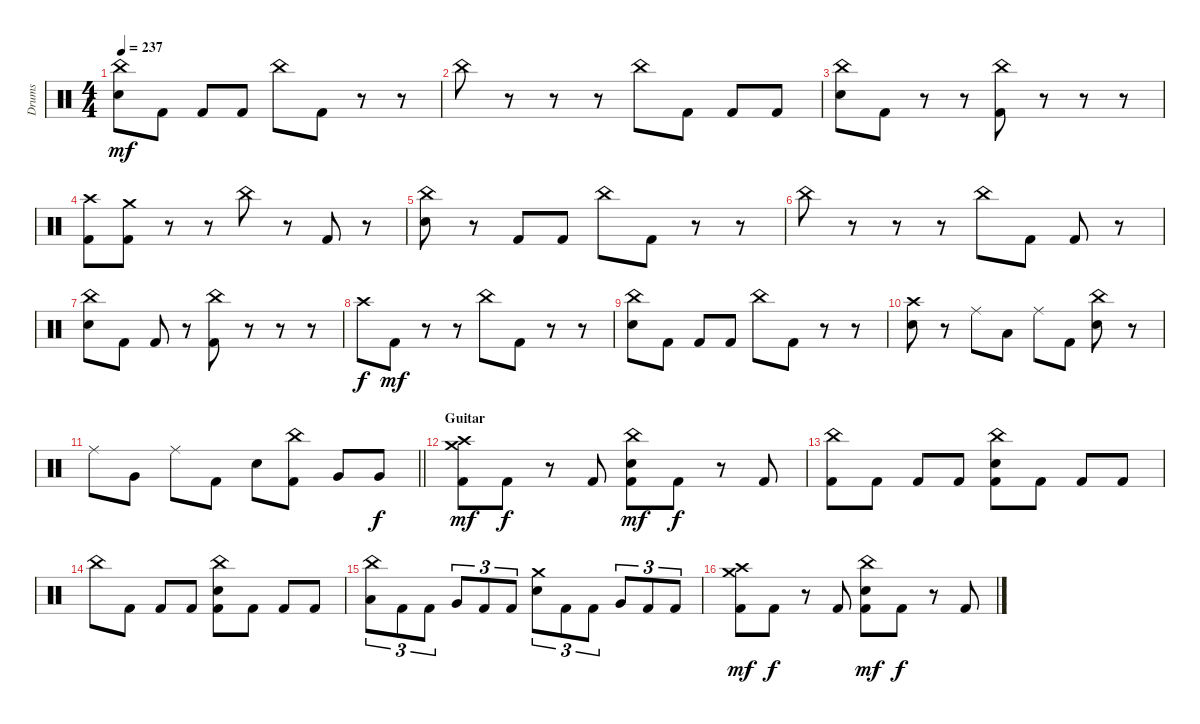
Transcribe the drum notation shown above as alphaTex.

\track ("Drums" "Drums") {instrument percussion}
\staff {score}
\articulation defaults
\ts (4 4)
\tempo 237
\clef neutral
\ks c
("China (hit)" "Electric Snare (hit)").8{dy mf} "Kick (hit) 2".8 "Kick (hit) 2".8 "Kick (hit) 2".8 "China (hit)".8 "Kick (hit) 2".8 r.8 r.8 |
"China (hit)".8 r.8 r.8 r.8 "China (hit)".8 "Kick (hit) 2".8 "Kick (hit) 2".8 "Kick (hit) 2".8 |
("China (hit)" "Electric Snare (hit)").8 "Kick (hit) 2".8 r.8 r.8 ("China (hit)" "Kick (hit) 2").8 r.8 r.8 r.8 |
("Crash high (hit)" "Kick (hit) 2").8 ("Crash medium (hit)" "Kick (hit) 2").8 r.8 r.8 "China (hit)".8 r.8 "Kick (hit) 2".8 r.8 |
("China (hit)" "Electric Snare (hit)").8 r.8 "Kick (hit) 2".8 "Kick (hit) 2".8 "China (hit)".8 "Kick (hit) 2".8 r.8 r.8 |
"China (hit)".8 r.8 r.8 r.8 "China (hit)".8 "Kick (hit) 2".8 "Kick (hit) 2".8 r.8 |
("China (hit)" "Electric Snare (hit)").8 "Kick (hit) 2".8 "Kick (hit) 2".8 r.8 ("China (hit)" "Kick (hit) 2").8 r.8 r.8 r.8 |
"Crash high (hit)".8{dy f} "Kick (hit) 2".8{dy mf} r.8 r.8 "China (hit)".8 "Kick (hit) 2".8 r.8 r.8 |
("China (hit)" "Electric Snare (hit)").8 "Kick (hit) 2".8 "Kick (hit) 2".8 "Kick (hit) 2".8 "China (hit)".8 "Kick (hit) 2".8 r.8 r.8 |
("Crash high (hit)" "Electric Snare (hit)").8 r.8 "Ride (middle)".8 "Low Tom (hit)".8 "Ride (middle)".8 "Kick (hit) 2".8 ("China (hit)" "Electric Snare (hit)").8 r.8 |
\barLineRight lightlight "Ride (middle)".8 "Very Low Tom (hit)".8 "Ride (middle)".8 "Kick (hit) 2".8 "Electric Snare (hit)".8
("China (hit)" "Kick (hit) 2").8 "Very Low Tom (hit)".8 "Very Low Tom (hit)".8{dy f} |
\section ("" "Guitar")
("Crash high (hit)" "Crash medium (hit)" "Kick (hit) 2").8{dy mf} "Kick (hit) 2".8{dy f} r.8 "Kick (hit) 2".8 ("China (hit)" "Electric Snare (hit)" "Kick (hit) 2").8{dy mf} "Kick (hit) 2".8{dy f} r.8 "Kick (hit) 2".8 |
("China (hit)" "Kick (hit) 2").8 "Kick (hit) 2".8 "Kick (hit) 2".8 "Kick (hit) 2".8 ("China (hit)" "Electric Snare (hit)" "Kick (hit) 2").8 "Kick (hit) 2".8 "Kick (hit) 2".8 "Kick (hit) 2".8 |
"China (hit)".8 "Kick (hit) 2".8 "Kick (hit) 2".8 "Kick (hit) 2".8 ("China (hit)" "Electric Snare (hit)" "Kick (hit) 2").8 "Kick (hit) 2".8 "Kick (hit) 2".8 "Kick (hit) 2".8 |
("China (hit)" "Low Floor Tom (hit)").8{tu (3 2)} "Kick (hit) 2".8{tu (3 2)} "Kick (hit) 2".8{tu (3 2)} "Very Low Tom (hit)".8{tu (3 2)} "Kick (hit) 2".8{tu (3 2)} "Kick (hit) 2".8{tu (3 2)} ("Crash medium (hit)" "Electric Snare (hit)").8{tu (3 2)} "Kick (hit) 2".8{tu (3 2)} "Kick (hit) 2".8{tu (3 2)} "Very Low Tom (hit)".8{tu (3 2)} "Kick (hit) 2".8{tu (3 2)} "Kick (hit) 2".8{tu (3 2)} |
("Crash high (hit)" "Crash medium (hit)" "Kick (hit) 2").8{dy mf} "Kick (hit) 2".8{dy f} r.8 "Kick (hit) 2".8 ("China (hit)" "Electric Snare (hit)" "Kick (hit) 2").8{dy mf} "Kick (hit) 2".8{dy f} r.8 "Kick (hit) 2".8
